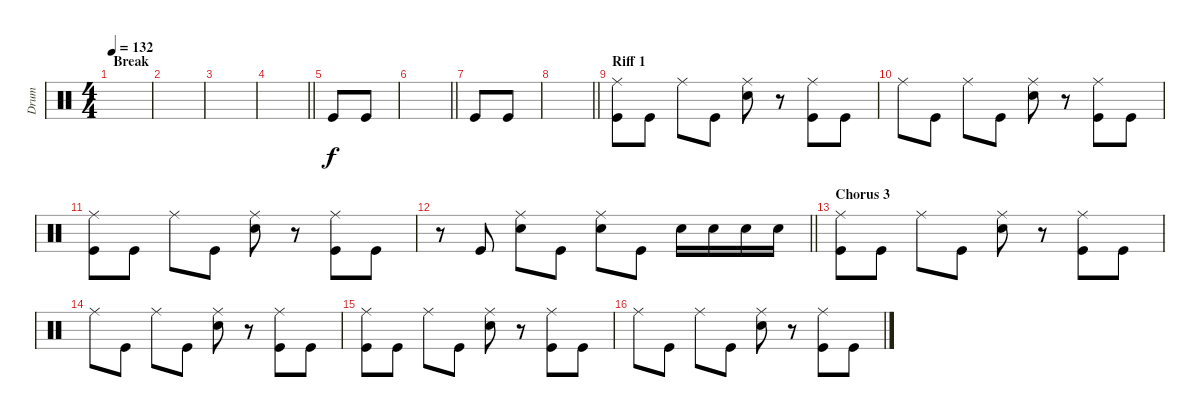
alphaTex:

\track ("Drum" "Drum") {instrument percussion}
\staff {score}
\articulation defaults
\ts (4 4)
\section ("" "Break")
\tempo 132
\clef neutral
\ks c
|
|
|
\barLineRight lightlight
|
"Kick (hit)".8 "Kick (hit)".8 |
\barLineRight lightlight
|
"Kick (hit)".8 "Kick (hit)".8 |
\barLineRight lightlight
|
\section ("" "Riff 1")
("Ride (middle)" "Kick (hit)").8 "Kick (hit)".8 "Ride (middle)".8 "Kick (hit)".8 ("Ride (middle)" "Snare (hit) 2").8 r.8 ("Ride (middle)" "Kick (hit)").8 "Kick (hit)".8 |
"Ride (middle)".8 "Kick (hit)".8 "Ride (middle)".8 "Kick (hit)".8 ("Ride (middle)" "Snare (hit) 2").8 r.8 ("Ride (middle)" "Kick (hit)").8 "Kick (hit)".8 |
("Ride (middle)" "Kick (hit)").8 "Kick (hit)".8 "Ride (middle)".8 "Kick (hit)".8 ("Ride (middle)" "Snare (hit) 2").8 r.8 ("Ride (middle)" "Kick (hit)").8 "Kick (hit)".8 |
\barLineRight lightlight
r.8 "Kick (hit)".8 ("Ride (middle)" "Snare (hit) 2").8 "Kick (hit)".8 ("Ride (middle)" "Snare (hit) 2").8 "Kick (hit)".8 "Snare (hit) 2".16 "Snare (hit) 2".16 "Snare (hit) 2".16 "Snare (hit) 2".16 |
\section ("" "Chorus 3")
("Ride (middle)" "Kick (hit)").8 "Kick (hit)".8 "Ride (middle)".8 "Kick (hit)".8 ("Ride (middle)" "Snare (hit) 2").8 r.8 ("Ride (middle)" "Kick (hit)").8 "Kick (hit)".8 |
"Ride (middle)".8 "Kick (hit)".8 "Ride (middle)".8 "Kick (hit)".8 ("Ride (middle)" "Snare (hit) 2").8 r.8 ("Ride (middle)" "Kick (hit)").8 "Kick (hit)".8 |
("Ride (middle)" "Kick (hit)").8 "Kick (hit)".8 "Ride (middle)".8 "Kick (hit)".8 ("Ride (middle)" "Snare (hit) 2").8 r.8 ("Ride (middle)" "Kick (hit)").8 "Kick (hit)".8 |
"Ride (middle)".8 "Kick (hit)".8 "Ride (middle)".8 "Kick (hit)".8 ("Ride (middle)" "Snare (hit) 2").8 r.8 ("Ride (middle)" "Kick (hit)").8 "Kick (hit)".8
